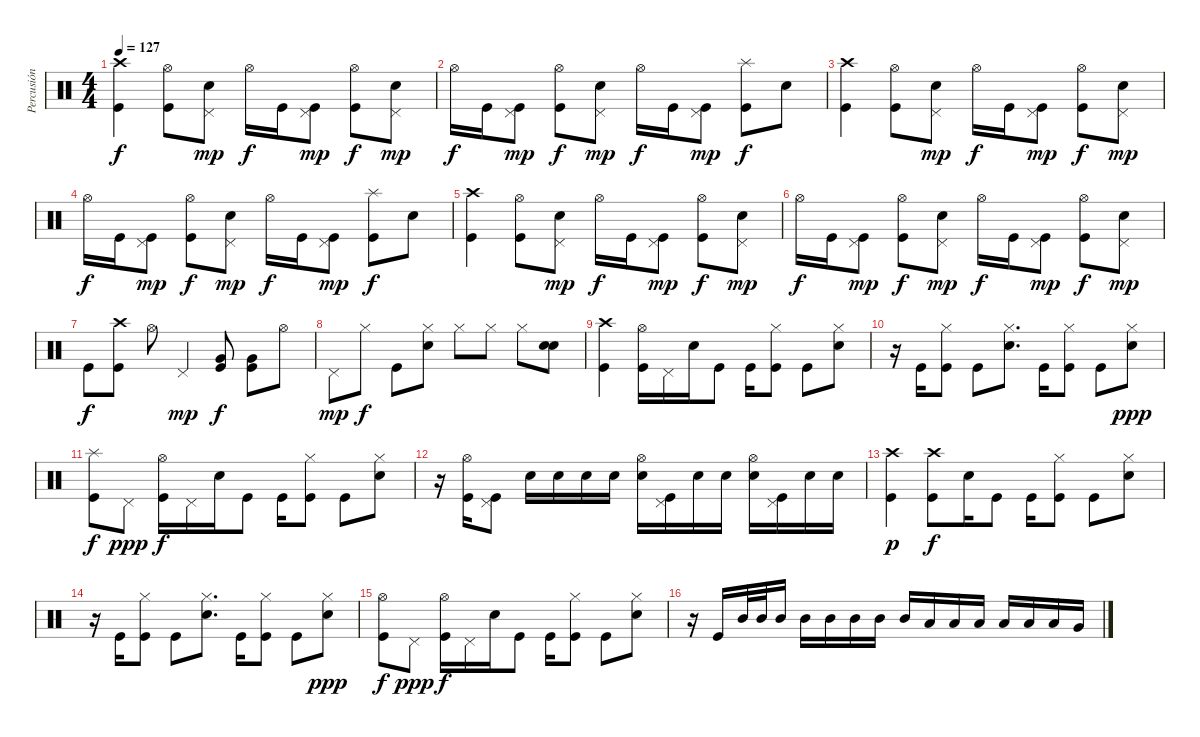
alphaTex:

\track ("Percusión" "Percusión") {instrument percussion}
\staff {score}
\articulation defaults
\ts (4 4)
\tempo 127
\clef neutral
\ks c
("Kick (hit)" "Crash high (hit)").4{dy f} ("Kick (hit)" "Hi-Hat (open)").8 ("Snare (hit) 2" "Pedal Hi-Hat (hit)").8{dy mp} "Hi-Hat (open)".16{dy f} "Kick (hit)".16 ("Kick (hit)" "Pedal Hi-Hat (hit)").8{dy mp} ("Kick (hit)" "Hi-Hat (open)").8{dy f} ("Snare (hit) 2" "Pedal Hi-Hat (hit)").8{dy mp} |
"Hi-Hat (open)".16{dy f} "Kick (hit)".16 ("Kick (hit)" "Pedal Hi-Hat (hit)").8{dy mp} ("Kick (hit)" "Hi-Hat (open)").8{dy f} ("Snare (hit) 2" "Pedal Hi-Hat (hit)").8{dy mp} "Hi-Hat (open)".16{dy f} "Kick (hit)".16 ("Kick (hit)" "Pedal Hi-Hat (hit)").8{dy mp} ("Kick (hit)" "Splash (hit)").8{dy f} "Snare (hit) 2".8 |
("Kick (hit)" "Crash high (hit)").4 ("Kick (hit)" "Hi-Hat (open)").8 ("Snare (hit) 2" "Pedal Hi-Hat (hit)").8{dy mp} "Hi-Hat (open)".16{dy f} "Kick (hit)".16 ("Kick (hit)" "Pedal Hi-Hat (hit)").8{dy mp} ("Kick (hit)" "Hi-Hat (open)").8{dy f} ("Snare (hit) 2" "Pedal Hi-Hat (hit)").8{dy mp} |
"Hi-Hat (open)".16{dy f} "Kick (hit)".16 ("Kick (hit)" "Pedal Hi-Hat (hit)").8{dy mp} ("Kick (hit)" "Hi-Hat (open)").8{dy f} ("Snare (hit) 2" "Pedal Hi-Hat (hit)").8{dy mp} "Hi-Hat (open)".16{dy f} "Kick (hit)".16 ("Kick (hit)" "Pedal Hi-Hat (hit)").8{dy mp} ("Kick (hit)" "Splash (hit)").8{dy f} "Snare (hit) 2".8 |
("Kick (hit)" "Crash high (hit)").4 ("Kick (hit)" "Hi-Hat (open)").8 ("Snare (hit) 2" "Pedal Hi-Hat (hit)").8{dy mp} "Hi-Hat (open)".16{dy f} "Kick (hit)".16 ("Kick (hit)" "Pedal Hi-Hat (hit)").8{dy mp} ("Kick (hit)" "Hi-Hat (open)").8{dy f} ("Snare (hit) 2" "Pedal Hi-Hat (hit)").8{dy mp} |
"Hi-Hat (open)".16{dy f} "Kick (hit)".16 ("Kick (hit)" "Pedal Hi-Hat (hit)").8{dy mp} ("Kick (hit)" "Hi-Hat (open)").8{dy f} ("Snare (hit) 2" "Pedal Hi-Hat (hit)").8{dy mp} "Hi-Hat (open)".16{dy f} "Kick (hit)".16 ("Kick (hit)" "Pedal Hi-Hat (hit)").8{dy mp} ("Kick (hit)" "Hi-Hat (open)").8{dy f} ("Snare (hit) 2" "Pedal Hi-Hat (hit)").8{dy mp} |
"Kick (hit)".8{dy f} ("Kick (hit)" "Crash high (hit)").8 "Hi-Hat (open)".8 "Pedal Hi-Hat (hit)".4{dy mp} ("Kick (hit)" "Very Low Tom (hit)").8{dy f} ("Kick (hit)" "Very Low Tom (hit)").8 "Hi-Hat (open)".8 |
"Pedal Hi-Hat (hit)".8{dy mp} "Hi-Hat (closed)".8{dy f} "Kick (hit)".8 ("Snare (hit) 2" "Hi-Hat (closed)").8 "Hi-Hat (closed)".8 "Hi-Hat (closed)".8 "Hi-Hat (closed)".8 ("Snare (hit) 2" "Snare (hit) 2").8 |
("Kick (hit)" "Crash high (hit)").4 ("Kick (hit)" "Hi-Hat (open)").16 "Pedal Hi-Hat (hit)".16 "Snare (hit) 2".16 "Kick (hit)".8 "Kick (hit)".16 ("Kick (hit)" "Hi-Hat (closed)").8 "Kick (hit)".8 ("Snare (hit) 2" "Hi-Hat (closed)").8 |
r.16 "Kick (hit)".16 ("Kick (hit)" "Hi-Hat (closed)").8 "Kick (hit)".8 ("Snare (hit) 2" "Hi-Hat (closed)").8{d} "Kick (hit)".16 ("Kick (hit)" "Hi-Hat (closed)").8 "Kick (hit)".8 ("Snare (hit) 2" "Hi-Hat (closed)").8{dy ppp} |
("Kick (hit)" "Splash (hit)").8{dy f} "Pedal Hi-Hat (hit)".8{dy ppp} ("Kick (hit)" "Hi-Hat (open)").16{dy f} "Pedal Hi-Hat (hit)".16 "Snare (hit) 2".16 "Kick (hit)".8 "Kick (hit)".16 ("Kick (hit)" "Hi-Hat (closed)").8 "Kick (hit)".8 ("Snare (hit) 2" "Hi-Hat (closed)").8 |
r.16 ("Kick (hit)" "Hi-Hat (open)").16 ("Kick (hit)" "Pedal Hi-Hat (hit)").8 "Snare (hit) 2".16 "Snare (hit) 2".16 "Snare (hit) 2".16 "Snare (hit) 2".16 ("Snare (hit) 2" "Hi-Hat (open)").16 ("Kick (hit)" "Pedal Hi-Hat (hit)").16 "Snare (hit) 2".16 "Snare (hit) 2".16 ("Snare (hit) 2" "Hi-Hat (open)").16 ("Kick (hit)" "Pedal Hi-Hat (hit)").16 "Snare (hit) 2".16 "Snare (hit) 2".16 |
("Kick (hit)" "Crash high (hit)").4{dy p} ("Kick (hit)" "Crash high (hit)").8{dy f} "Snare (hit) 2".16 "Kick (hit)".8 "Kick (hit)".16 ("Kick (hit)" "Hi-Hat (closed)").8 "Kick (hit)".8 ("Snare (hit) 2" "Hi-Hat (closed)").8 |
r.16 "Kick (hit)".16 ("Kick (hit)" "Hi-Hat (closed)").8 "Kick (hit)".8 ("Snare (hit) 2" "Hi-Hat (closed)").8{d} "Kick (hit)".16 ("Kick (hit)" "Hi-Hat (closed)").8 "Kick (hit)".8 ("Snare (hit) 2" "Hi-Hat (closed)").8{dy ppp} |
("Kick (hit)" "Hi-Hat (open)").8{dy f} "Pedal Hi-Hat (hit)".8{dy ppp} ("Kick (hit)" "Hi-Hat (open)").16{dy f} "Pedal Hi-Hat (hit)".16 "Snare (hit) 2".16 "Kick (hit)".8 "Kick (hit)".16 ("Kick (hit)" "Hi-Hat (closed)").8 "Kick (hit)".8 ("Snare (hit) 2" "Hi-Hat (closed)").8 |
r.16 "Kick (hit)".16 "Mid Tom (hit)".32 "Mid Tom (hit)".32 "Mid Tom (hit)".16 "Mid Tom (hit)".16 "Mid Tom (hit)".16 "Mid Tom (hit)".16 "Mid Tom (hit)".16 "Mid Tom (hit)".16 "Low Tom (hit)".16 "Low Tom (hit)".16 "Low Tom (hit)".16 "Low Tom (hit)".16 "Low Tom (hit)".16 "Low Tom (hit)".16 "Very Low Tom (hit)".16
